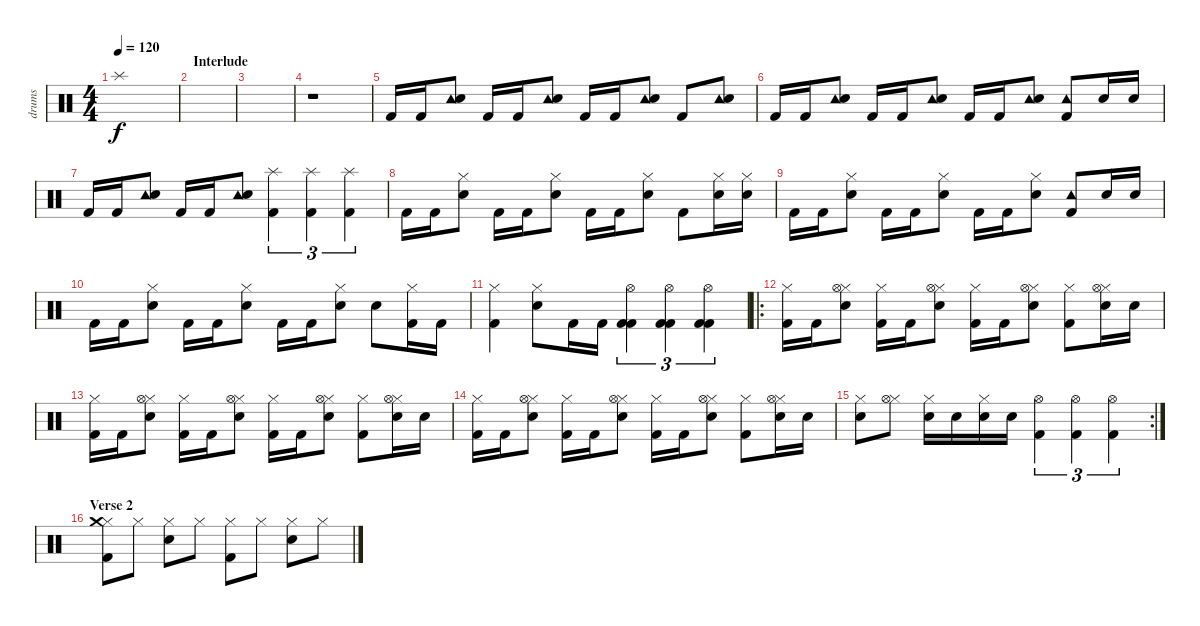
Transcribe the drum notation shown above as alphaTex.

\track ("drums" "drums") {instrument percussion}
\staff {score}
\articulation defaults
\ts (4 4)
\tempo 120
\clef neutral
\ks c "Splash (hit)".1{dy f}
|
\section ("" "Interlude")
|
|
r.1{volume 0} |
"Kick (hit) 2".16{volume 13} "Kick (hit) 2".16 ("Tambourine (hit)" "Electric Snare (hit)").8 "Kick (hit) 2".16 "Kick (hit) 2".16 ("Tambourine (hit)" "Electric Snare (hit)").8 "Kick (hit) 2".16 "Kick (hit) 2".16 ("Tambourine (hit)" "Electric Snare (hit)").8 "Kick (hit) 2".8 ("Tambourine (hit)" "Electric Snare (hit)").8 |
"Kick (hit) 2".16 "Kick (hit) 2".16 ("Tambourine (hit)" "Electric Snare (hit)").8 "Kick (hit) 2".16 "Kick (hit) 2".16 ("Tambourine (hit)" "Electric Snare (hit)").8 "Kick (hit) 2".16 "Kick (hit) 2".16 ("Tambourine (hit)" "Electric Snare (hit)").8 ("Tambourine (hit)" "Kick (hit) 2").8 "Electric Snare (hit)".16 "Electric Snare (hit)".16 |
"Kick (hit) 2".16 "Kick (hit) 2".16 ("Tambourine (hit)" "Electric Snare (hit)").8 "Kick (hit) 2".16 "Kick (hit) 2".16 ("Tambourine (hit)" "Electric Snare (hit)").8 ("Splash (hit)" "Kick (hit) 2").4{tu (3 2)} ("Splash (hit)" "Kick (hit) 2").4{tu (3 2)} ("Splash (hit)" "Kick (hit) 2").4{tu (3 2)} |
"Kick (hit) 2".16 "Kick (hit) 2".16 ("Hi-Hat (closed)" "Electric Snare (hit)").8 "Kick (hit) 2".16 "Kick (hit) 2".16 ("Hi-Hat (closed)" "Electric Snare (hit)").8 "Kick (hit) 2".16 "Kick (hit) 2".16 ("Hi-Hat (closed)" "Electric Snare (hit)").8 "Kick (hit) 2".8 ("Hi-Hat (closed)" "Electric Snare (hit)").16 ("Hi-Hat (closed)" "Electric Snare (hit)").16 |
"Kick (hit) 2".16 "Kick (hit) 2".16 ("Hi-Hat (closed)" "Electric Snare (hit)").8 "Kick (hit) 2".16 "Kick (hit) 2".16 ("Hi-Hat (closed)" "Electric Snare (hit)").8 "Kick (hit) 2".16 "Kick (hit) 2".16 ("Hi-Hat (closed)" "Electric Snare (hit)").8 ("Kick (hit) 2" "Tambourine (hit)").8 "Electric Snare (hit)".16 "Electric Snare (hit)".16 |
"Kick (hit) 2".16 "Kick (hit) 2".16 ("Hi-Hat (closed)" "Electric Snare (hit)").8 "Kick (hit) 2".16 "Kick (hit) 2".16 ("Hi-Hat (closed)" "Electric Snare (hit)").8 "Kick (hit) 2".16 "Kick (hit) 2".16 ("Hi-Hat (closed)" "Electric Snare (hit)").8 "Electric Snare (hit)".8 ("Hi-Hat (closed)" "Kick (hit) 2").16 "Kick (hit) 2".16 |
("Hi-Hat (closed)" "Kick (hit) 2").4 ("Hi-Hat (closed)" "Electric Snare (hit)").8 "Kick (hit) 2".16 "Kick (hit) 2".16 ("Hi-Hat (open)" "Kick (hit) 2" "Kick (hit) 2").4{tu (3 2)} ("Hi-Hat (open)" "Kick (hit) 2" "Kick (hit) 2").4{tu (3 2)} ("Hi-Hat (open)" "Kick (hit) 2" "Kick (hit) 2").4{tu (3 2)} |
\ro
("Hi-Hat (closed)" "Kick (hit) 2").16 "Kick (hit) 2".16 ("Hi-Hat (closed)" "Electric Snare (hit)" "Hi-Hat (open)").8 ("Hi-Hat (closed)" "Kick (hit) 2").16 "Kick (hit) 2".16 ("Hi-Hat (closed)" "Electric Snare (hit)" "Hi-Hat (open)").8 ("Hi-Hat (closed)" "Kick (hit) 2").16 "Kick (hit) 2".16 ("Hi-Hat (closed)" "Electric Snare (hit)" "Hi-Hat (open)").8 ("Hi-Hat (closed)" "Kick (hit) 2").8 ("Hi-Hat (closed)" "Electric Snare (hit)" "Hi-Hat (open)").16 "Electric Snare (hit)".16 |
("Hi-Hat (closed)" "Kick (hit) 2").16 "Kick (hit) 2".16 ("Hi-Hat (closed)" "Electric Snare (hit)" "Hi-Hat (open)").8 ("Hi-Hat (closed)" "Kick (hit) 2").16 "Kick (hit) 2".16 ("Hi-Hat (closed)" "Electric Snare (hit)" "Hi-Hat (open)").8 ("Hi-Hat (closed)" "Kick (hit) 2").16 "Kick (hit) 2".16 ("Hi-Hat (closed)" "Electric Snare (hit)" "Hi-Hat (open)").8 ("Hi-Hat (closed)" "Kick (hit) 2").8 ("Hi-Hat (closed)" "Electric Snare (hit)" "Hi-Hat (open)").16 "Electric Snare (hit)".16 |
("Hi-Hat (closed)" "Kick (hit) 2").16 "Kick (hit) 2".16 ("Hi-Hat (closed)" "Electric Snare (hit)" "Hi-Hat (open)").8 ("Hi-Hat (closed)" "Kick (hit) 2").16 "Kick (hit) 2".16 ("Hi-Hat (closed)" "Electric Snare (hit)" "Hi-Hat (open)").8 ("Hi-Hat (closed)" "Kick (hit) 2").16 "Kick (hit) 2".16 ("Hi-Hat (closed)" "Electric Snare (hit)" "Hi-Hat (open)").8 ("Hi-Hat (closed)" "Kick (hit) 2").8 ("Hi-Hat (closed)" "Electric Snare (hit)" "Hi-Hat (open)").16 "Electric Snare (hit)".16 |
\rc 2
("Hi-Hat (closed)" "Electric Snare (hit)").8 ("Hi-Hat (closed)" "Hi-Hat (open)").8 ("Hi-Hat (closed)" "Electric Snare (hit)").16 "Electric Snare (hit)".16 ("Hi-Hat (closed)" "Electric Snare (hit)").16 "Electric Snare (hit)".16 ("Hi-Hat (open)" "Kick (hit) 2").4{tu (3 2)} ("Hi-Hat (open)" "Kick (hit) 2").4{tu (3 2)} ("Hi-Hat (open)" "Kick (hit) 2").4{tu (3 2)} |
\section ("" "Verse 2")
("Hi-Hat (closed)" "Crash medium (hit)" "Kick (hit) 2").8 "Hi-Hat (closed)".8 ("Hi-Hat (closed)" "Electric Snare (hit)").8 "Hi-Hat (closed)".8 ("Hi-Hat (closed)" "Kick (hit) 2").8 "Hi-Hat (closed)".8 ("Hi-Hat (closed)" "Electric Snare (hit)").8 "Hi-Hat (closed)".8
